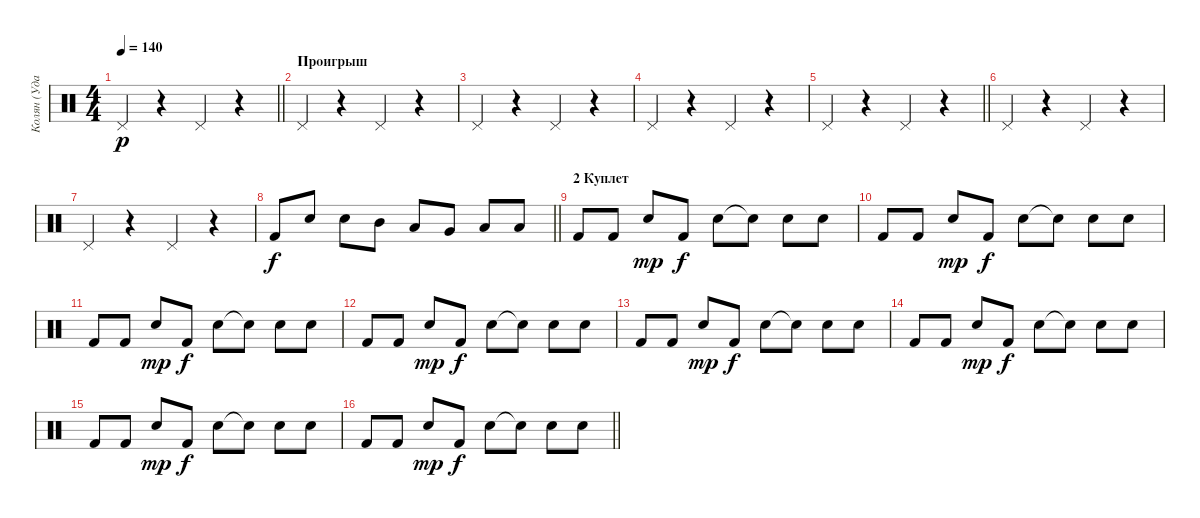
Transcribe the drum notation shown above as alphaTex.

\track ("Колян (Ударные)" "Колян (Уда") {instrument percussion}
\staff
\articulation defaults
\ts (4 4)
\tempo 140
\clef neutral
\barLineRight lightlight
\ks c "Pedal Hi-Hat (hit)".4{dy p}
r.4 "Pedal Hi-Hat (hit)".4 r.4 |
\section ("" "Проигрыш")
"Pedal Hi-Hat (hit)".4 r.4 "Pedal Hi-Hat (hit)".4 r.4 |
"Pedal Hi-Hat (hit)".4 r.4 "Pedal Hi-Hat (hit)".4 r.4 |
"Pedal Hi-Hat (hit)".4 r.4 "Pedal Hi-Hat (hit)".4 r.4 |
\barLineRight lightlight "Pedal Hi-Hat (hit)".4
r.4 "Pedal Hi-Hat (hit)".4 r.4 |
"Pedal Hi-Hat (hit)".4 r.4 "Pedal Hi-Hat (hit)".4 r.4 |
"Pedal Hi-Hat (hit)".4 r.4 "Pedal Hi-Hat (hit)".4 r.4 |
\barLineRight lightlight "Kick (hit) 2".8{dy f} "Snare (hit) 2".8 "Snare (hit) 2".8 "Mid Tom (hit)".8 "Low Tom (hit)".8 "Very Low Tom (hit)".8 "Low Floor Tom (hit)".8 "Low Floor Tom (hit)".8
|
\section ("" "2 Куплет")
"Kick (hit) 2".8 "Kick (hit) 2".8 "Snare (hit) 2".8{dy mp} "Kick (hit) 2".8{dy f} "Snare (hit) 2".8 "Snare (hit)"{t}.8 "Snare (hit) 2".8 "Snare (hit) 2".8 |
"Kick (hit) 2".8 "Kick (hit) 2".8 "Snare (hit) 2".8{dy mp} "Kick (hit) 2".8{dy f} "Snare (hit) 2".8 "Snare (hit)"{t}.8 "Snare (hit) 2".8 "Snare (hit) 2".8 |
"Kick (hit) 2".8 "Kick (hit) 2".8 "Snare (hit) 2".8{dy mp} "Kick (hit) 2".8{dy f} "Snare (hit) 2".8 "Snare (hit)"{t}.8 "Snare (hit) 2".8 "Snare (hit) 2".8 |
"Kick (hit) 2".8 "Kick (hit) 2".8 "Snare (hit) 2".8{dy mp} "Kick (hit) 2".8{dy f} "Snare (hit) 2".8 "Snare (hit)"{t}.8 "Snare (hit) 2".8 "Snare (hit) 2".8 |
"Kick (hit) 2".8 "Kick (hit) 2".8 "Snare (hit) 2".8{dy mp} "Kick (hit) 2".8{dy f} "Snare (hit) 2".8 "Snare (hit)"{t}.8 "Snare (hit) 2".8 "Snare (hit) 2".8 |
"Kick (hit) 2".8 "Kick (hit) 2".8 "Snare (hit) 2".8{dy mp} "Kick (hit) 2".8{dy f} "Snare (hit) 2".8 "Snare (hit)"{t}.8 "Snare (hit) 2".8 "Snare (hit) 2".8 |
"Kick (hit) 2".8 "Kick (hit) 2".8 "Snare (hit) 2".8{dy mp} "Kick (hit) 2".8{dy f} "Snare (hit) 2".8 "Snare (hit)"{t}.8 "Snare (hit) 2".8 "Snare (hit) 2".8 |
\barLineRight lightlight "Kick (hit) 2".8 "Kick (hit) 2".8 "Snare (hit) 2".8{dy mp} "Kick (hit) 2".8{dy f} "Snare (hit) 2".8 "Snare (hit)"{t}.8 "Snare (hit) 2".8 "Snare (hit) 2".8
